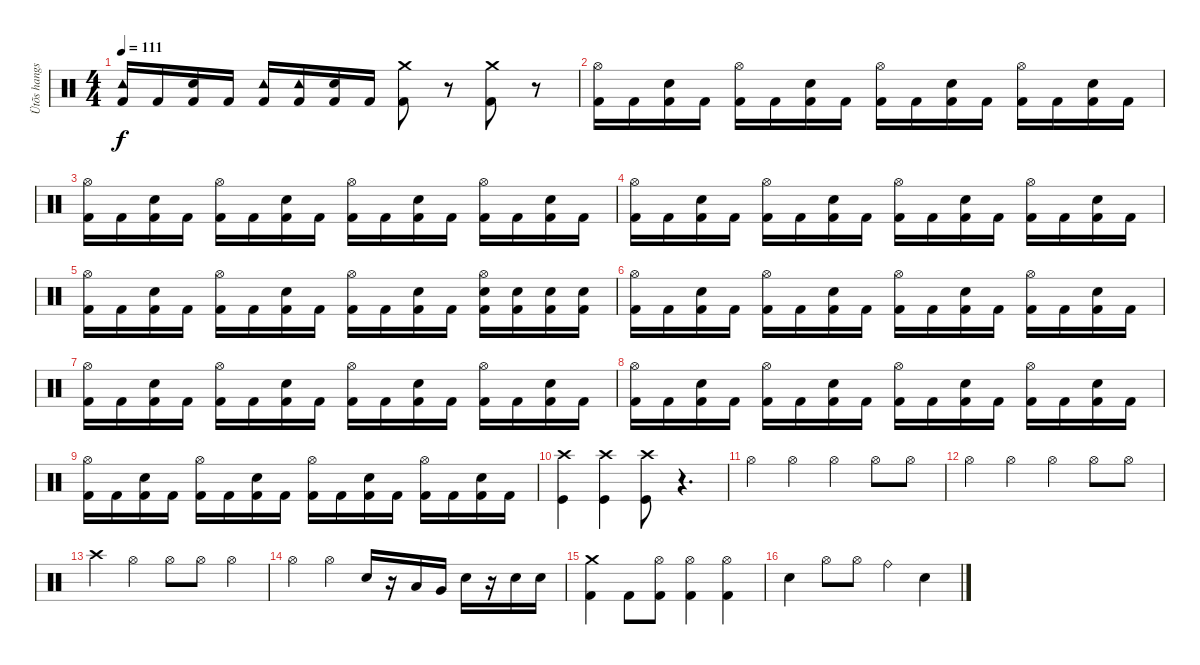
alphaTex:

\track ("Ütõs hangszer" "Ütõs hangs") {instrument percussion}
\staff {score}
\articulation defaults
\ts (4 4)
\tempo 111
\clef neutral
\ks c
("Kick (hit) 2" "Tambourine (hit)").16{dy f} "Kick (hit) 2".16 ("Kick (hit) 2" "Electric Snare (hit)").16 "Kick (hit) 2".16 ("Kick (hit) 2" "Tambourine (hit)").16 ("Kick (hit) 2" "Tambourine (hit)").16 ("Kick (hit) 2" "Electric Snare (hit)").16 "Kick (hit) 2".16 ("Crash medium (hit)" "Kick (hit) 2").8 r.8 ("Crash medium (hit)" "Kick (hit) 2").8 r.8 |
("Kick (hit) 2" "Hi-Hat (open)").16 "Kick (hit) 2".16 ("Kick (hit) 2" "Electric Snare (hit)").16 "Kick (hit) 2".16 ("Kick (hit) 2" "Hi-Hat (open)").16 "Kick (hit) 2".16 ("Kick (hit) 2" "Electric Snare (hit)").16 "Kick (hit) 2".16 ("Kick (hit) 2" "Hi-Hat (open)").16 "Kick (hit) 2".16 ("Kick (hit) 2" "Electric Snare (hit)").16 "Kick (hit) 2".16 ("Kick (hit) 2" "Hi-Hat (open)").16 "Kick (hit) 2".16 ("Kick (hit) 2" "Electric Snare (hit)").16 "Kick (hit) 2".16 |
("Kick (hit) 2" "Hi-Hat (open)").16 "Kick (hit) 2".16 ("Kick (hit) 2" "Electric Snare (hit)").16 "Kick (hit) 2".16 ("Kick (hit) 2" "Hi-Hat (open)").16 "Kick (hit) 2".16 ("Kick (hit) 2" "Electric Snare (hit)").16 "Kick (hit) 2".16 ("Kick (hit) 2" "Hi-Hat (open)").16 "Kick (hit) 2".16 ("Kick (hit) 2" "Electric Snare (hit)").16 "Kick (hit) 2".16 ("Kick (hit) 2" "Hi-Hat (open)").16 "Kick (hit) 2".16 ("Kick (hit) 2" "Electric Snare (hit)").16 "Kick (hit) 2".16 |
("Kick (hit) 2" "Hi-Hat (open)").16 "Kick (hit) 2".16 ("Kick (hit) 2" "Electric Snare (hit)").16 "Kick (hit) 2".16 ("Kick (hit) 2" "Hi-Hat (open)").16 "Kick (hit) 2".16 ("Kick (hit) 2" "Electric Snare (hit)").16 "Kick (hit) 2".16 ("Kick (hit) 2" "Hi-Hat (open)").16 "Kick (hit) 2".16 ("Kick (hit) 2" "Electric Snare (hit)").16 "Kick (hit) 2".16 ("Kick (hit) 2" "Hi-Hat (open)").16 "Kick (hit) 2".16 ("Kick (hit) 2" "Electric Snare (hit)").16 "Kick (hit) 2".16 |
("Kick (hit) 2" "Hi-Hat (open)").16 "Kick (hit) 2".16 ("Kick (hit) 2" "Electric Snare (hit)").16 "Kick (hit) 2".16 ("Kick (hit) 2" "Hi-Hat (open)").16 "Kick (hit) 2".16 ("Kick (hit) 2" "Electric Snare (hit)").16 "Kick (hit) 2".16 ("Kick (hit) 2" "Hi-Hat (open)").16 "Kick (hit) 2".16 ("Kick (hit) 2" "Electric Snare (hit)").16 "Kick (hit) 2".16 ("Kick (hit) 2" "Hi-Hat (open)" "Electric Snare (hit)").16 ("Kick (hit) 2" "Electric Snare (hit)").16 ("Kick (hit) 2" "Electric Snare (hit)").16 ("Kick (hit) 2" "Electric Snare (hit)").16 |
("Kick (hit) 2" "Hi-Hat (open)").16 "Kick (hit) 2".16 ("Kick (hit) 2" "Electric Snare (hit)").16 "Kick (hit) 2".16 ("Kick (hit) 2" "Hi-Hat (open)").16 "Kick (hit) 2".16 ("Kick (hit) 2" "Electric Snare (hit)").16 "Kick (hit) 2".16 ("Kick (hit) 2" "Hi-Hat (open)").16 "Kick (hit) 2".16 ("Kick (hit) 2" "Electric Snare (hit)").16 "Kick (hit) 2".16 ("Kick (hit) 2" "Hi-Hat (open)").16 "Kick (hit) 2".16 ("Kick (hit) 2" "Electric Snare (hit)").16 "Kick (hit) 2".16 |
("Kick (hit) 2" "Hi-Hat (open)").16 "Kick (hit) 2".16 ("Kick (hit) 2" "Electric Snare (hit)").16 "Kick (hit) 2".16 ("Kick (hit) 2" "Hi-Hat (open)").16 "Kick (hit) 2".16 ("Kick (hit) 2" "Electric Snare (hit)").16 "Kick (hit) 2".16 ("Kick (hit) 2" "Hi-Hat (open)").16 "Kick (hit) 2".16 ("Kick (hit) 2" "Electric Snare (hit)").16 "Kick (hit) 2".16 ("Kick (hit) 2" "Hi-Hat (open)").16 "Kick (hit) 2".16 ("Kick (hit) 2" "Electric Snare (hit)").16 "Kick (hit) 2".16 |
("Kick (hit) 2" "Hi-Hat (open)").16 "Kick (hit) 2".16 ("Kick (hit) 2" "Electric Snare (hit)").16 "Kick (hit) 2".16 ("Kick (hit) 2" "Hi-Hat (open)").16 "Kick (hit) 2".16 ("Kick (hit) 2" "Electric Snare (hit)").16 "Kick (hit) 2".16 ("Kick (hit) 2" "Hi-Hat (open)").16 "Kick (hit) 2".16 ("Kick (hit) 2" "Electric Snare (hit)").16 "Kick (hit) 2".16 ("Kick (hit) 2" "Hi-Hat (open)").16 "Kick (hit) 2".16 ("Kick (hit) 2" "Electric Snare (hit)").16 "Kick (hit) 2".16 |
("Kick (hit) 2" "Hi-Hat (open)").16 "Kick (hit) 2".16 ("Kick (hit) 2" "Electric Snare (hit)").16 "Kick (hit) 2".16 ("Kick (hit) 2" "Hi-Hat (open)").16 "Kick (hit) 2".16 ("Kick (hit) 2" "Electric Snare (hit)").16 "Kick (hit) 2".16 ("Kick (hit) 2" "Hi-Hat (open)").16 "Kick (hit) 2".16 ("Kick (hit) 2" "Electric Snare (hit)").16 "Kick (hit) 2".16 ("Kick (hit) 2" "Hi-Hat (open)").16 "Kick (hit) 2".16 ("Kick (hit) 2" "Electric Snare (hit)").16 "Kick (hit) 2".16 |
("Crash high (hit)" "Kick (hit)").4 ("Crash high (hit)" "Kick (hit)").4 ("Crash high (hit)" "Kick (hit)").8 r.4{d} |
"Hi-Hat (open)".4 "Hi-Hat (open)".4 "Hi-Hat (open)".4 "Hi-Hat (open)".8 "Hi-Hat (open)".8 |
"Hi-Hat (open)".4 "Hi-Hat (open)".4 "Hi-Hat (open)".4 "Hi-Hat (open)".8 "Hi-Hat (open)".8 |
"Crash high (hit)".4 "Hi-Hat (open)".4 "Hi-Hat (open)".8 "Hi-Hat (open)".8 "Hi-Hat (open)".4 |
"Hi-Hat (open)".4 "Hi-Hat (open)".4 "Electric Snare (hit)".16 r.16 "Low Tom (hit)".16 "Very Low Tom (hit)".16 "Electric Snare (hit)".16 r.16 "Electric Snare (hit)".16 "Electric Snare (hit)".16 |
("Crash medium (hit)" "Kick (hit) 2").4 "Kick (hit) 2".8 ("Hi-Hat (open)" "Kick (hit) 2").8 ("Hi-Hat (open)" "Kick (hit) 2").4 ("Hi-Hat (open)" "Kick (hit) 2").4 |
"Electric Snare (hit)".4 "Hi-Hat (open)".8 "Hi-Hat (open)".8 "Ride (bell)".4 "Electric Snare (hit)".4
